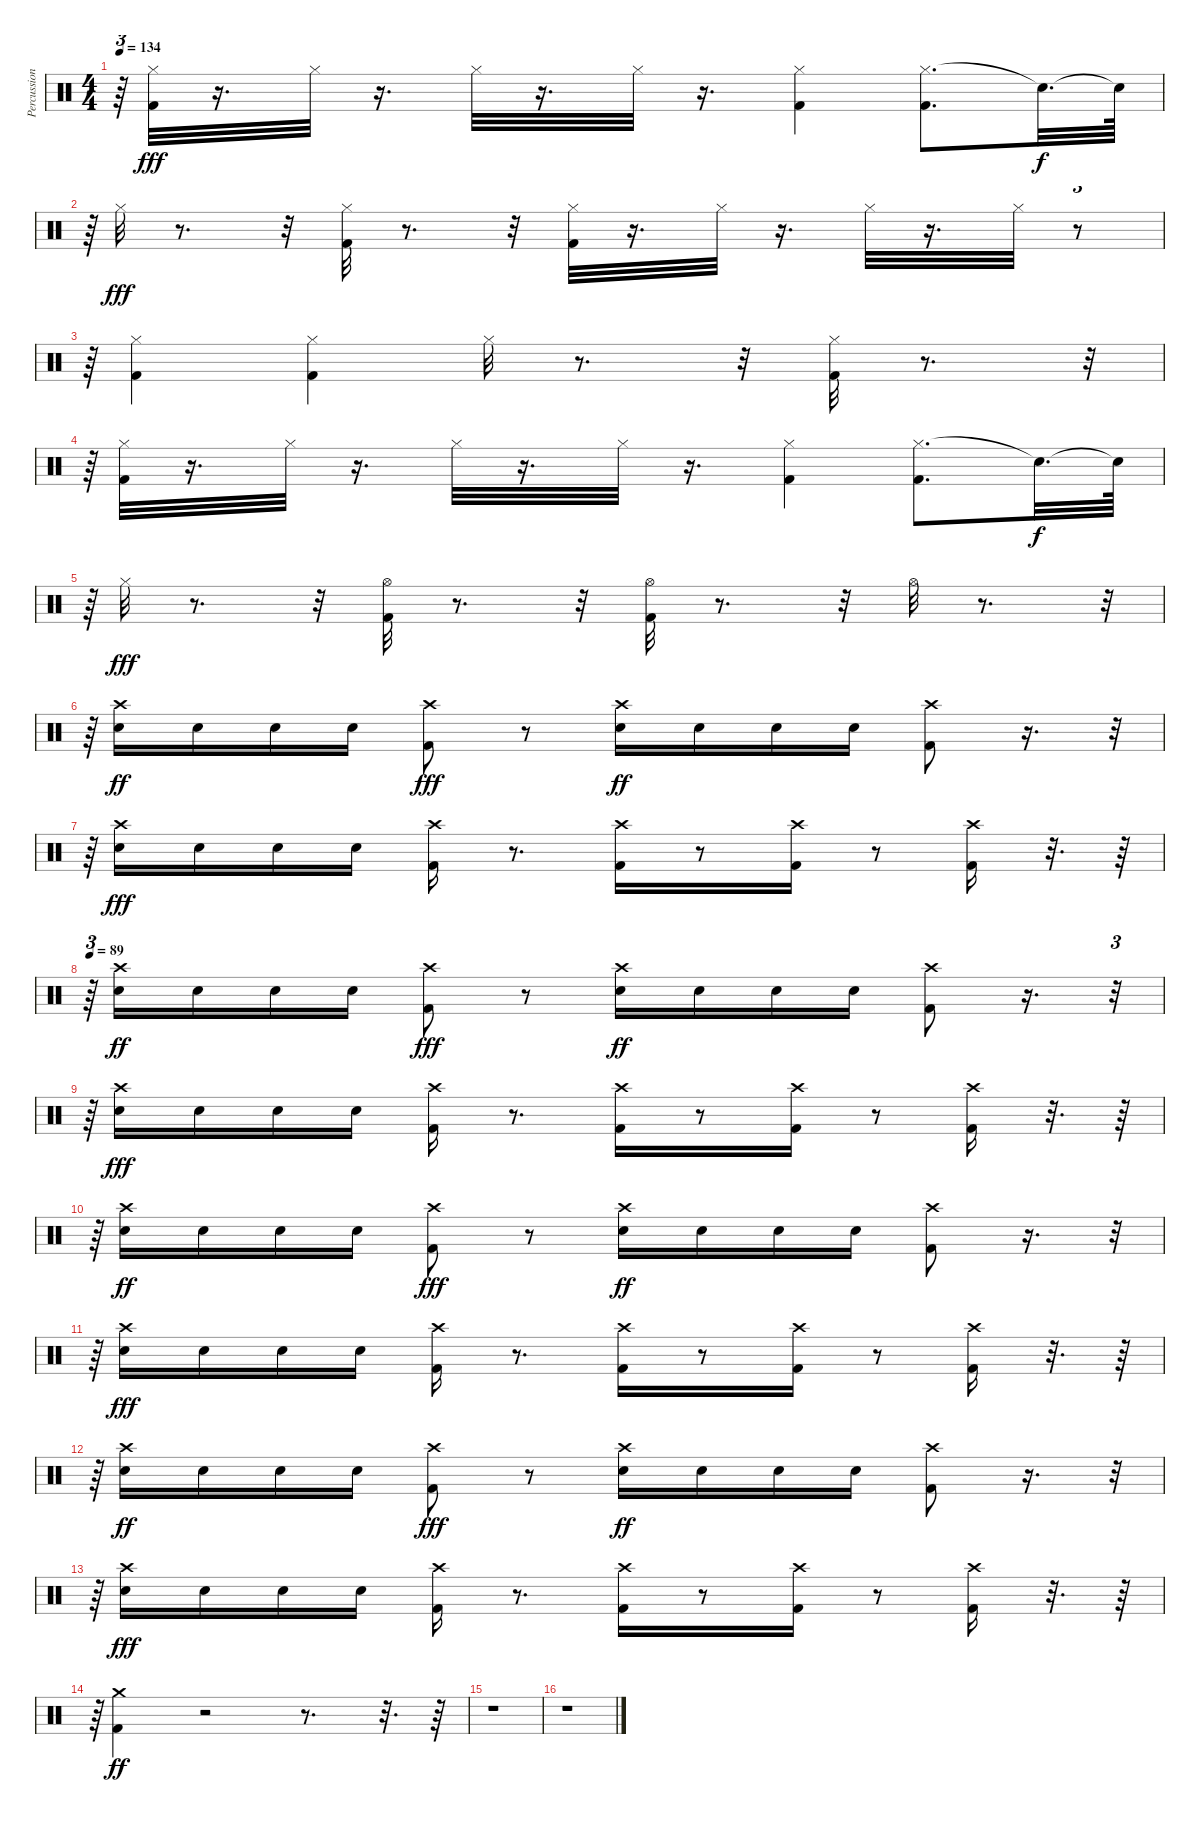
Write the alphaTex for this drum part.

\track ("Percussioni" "Percussion") {instrument percussion}
\staff {score}
\articulation defaults
\ts (4 4)
\tempo 134
\clef neutral
\ks c
r.64{tu (3 2) dy fff} ("Hi-Hat (closed)" "Kick (hit) 2").32 r.16{d} "Hi-Hat (closed)".32 r.16{d} "Hi-Hat (closed)".32 r.16{d} "Hi-Hat (closed)".32 r.16{d} ("Hi-Hat (closed)" "Kick (hit) 2").4 ("Hi-Hat (closed)" "Kick (hit) 2").8{d} "Snare (hit)"{t}.32{d dy f} "Snare (hit)"{t}.64 |
r.64{tu (3 2)} "Hi-Hat (closed)".32{dy fff} r.8{d} r.32 ("Hi-Hat (closed)" "Kick (hit) 2").32 r.8{d} r.32 ("Hi-Hat (closed)" "Kick (hit) 2").32 r.16{d} "Hi-Hat (closed)".32 r.16{d} "Hi-Hat (closed)".32 r.16{d} "Hi-Hat (closed)".32 r.8{tu (3 2)} |
r.64{tu (3 2)} ("Hi-Hat (closed)" "Kick (hit) 2").4 ("Hi-Hat (closed)" "Kick (hit) 2").4 "Hi-Hat (closed)".32 r.8{d} r.32 ("Hi-Hat (closed)" "Kick (hit) 2").32 r.8{d} r.32{tu (3 2)} |
r.64{tu (3 2)} ("Hi-Hat (closed)" "Kick (hit) 2").32 r.16{d} "Hi-Hat (closed)".32 r.16{d} "Hi-Hat (closed)".32 r.16{d} "Hi-Hat (closed)".32 r.16{d} ("Hi-Hat (closed)" "Kick (hit) 2").4 ("Hi-Hat (closed)" "Kick (hit) 2").8{d} "Snare (hit)"{t}.32{d dy f} "Snare (hit)"{t}.64 |
r.64{tu (3 2)} "Hi-Hat (closed)".32{dy fff} r.8{d} r.32 ("Hi-Hat (open)" "Kick (hit) 2").32 r.8{d} r.32 ("Hi-Hat (open)" "Kick (hit) 2").32 r.8{d} r.32 "Hi-Hat (open)".32 r.8{d} r.32{tu (3 2)} |
r.64{tu (3 2)} ("Crash high (hit)" "Snare (hit) 2").16{dy ff} "Snare (hit) 2".16 "Snare (hit) 2".16 "Snare (hit) 2".16 ("Crash high (hit)" "Kick (hit) 2").8{dy fff} r.8 ("Crash high (hit)" "Snare (hit) 2").16{dy ff} "Snare (hit) 2".16 "Snare (hit) 2".16 "Snare (hit) 2".16 ("Crash high (hit)" "Kick (hit) 2").8 r.16{d} r.32{tu (3 2)} |
r.64{tu (3 2)} ("Crash high (hit)" "Snare (hit) 2").16{dy fff} "Snare (hit) 2".16 "Snare (hit) 2".16 "Snare (hit) 2".16 ("Crash high (hit)" "Kick (hit) 2").16 r.8{d} ("Crash high (hit)" "Kick (hit) 2").16 r.8 ("Crash high (hit)" "Kick (hit) 2").16 r.8 ("Crash high (hit)" "Kick (hit) 2").16 r.32{d} r.64 |
\tempo 89
r.64{tu (3 2)} ("Crash high (hit)" "Snare (hit) 2").16{dy ff} "Snare (hit) 2".16 "Snare (hit) 2".16 "Snare (hit) 2".16 ("Crash high (hit)" "Kick (hit) 2").8{dy fff} r.8 ("Crash high (hit)" "Snare (hit) 2").16{dy ff} "Snare (hit) 2".16 "Snare (hit) 2".16 "Snare (hit) 2".16 ("Crash high (hit)" "Kick (hit) 2").8 r.16{d} r.32{tu (3 2)} |
r.64{tu (3 2)} ("Crash high (hit)" "Snare (hit) 2").16{dy fff} "Snare (hit) 2".16 "Snare (hit) 2".16 "Snare (hit) 2".16 ("Crash high (hit)" "Kick (hit) 2").16 r.8{d} ("Crash high (hit)" "Kick (hit) 2").16 r.8 ("Crash high (hit)" "Kick (hit) 2").16 r.8 ("Crash high (hit)" "Kick (hit) 2").16 r.32{d} r.64 |
r.64{tu (3 2)} ("Crash high (hit)" "Snare (hit) 2").16{dy ff} "Snare (hit) 2".16 "Snare (hit) 2".16 "Snare (hit) 2".16 ("Crash high (hit)" "Kick (hit) 2").8{dy fff} r.8 ("Crash high (hit)" "Snare (hit) 2").16{dy ff} "Snare (hit) 2".16 "Snare (hit) 2".16 "Snare (hit) 2".16 ("Crash high (hit)" "Kick (hit) 2").8 r.16{d} r.32{tu (3 2)} |
r.64{tu (3 2)} ("Crash high (hit)" "Snare (hit) 2").16{dy fff} "Snare (hit) 2".16 "Snare (hit) 2".16 "Snare (hit) 2".16 ("Crash high (hit)" "Kick (hit) 2").16 r.8{d} ("Crash high (hit)" "Kick (hit) 2").16 r.8 ("Crash high (hit)" "Kick (hit) 2").16 r.8 ("Crash high (hit)" "Kick (hit) 2").16 r.32{d} r.64 |
r.64{tu (3 2)} ("Crash high (hit)" "Snare (hit) 2").16{dy ff} "Snare (hit) 2".16 "Snare (hit) 2".16 "Snare (hit) 2".16 ("Crash high (hit)" "Kick (hit) 2").8{dy fff} r.8 ("Crash high (hit)" "Snare (hit) 2").16{dy ff} "Snare (hit) 2".16 "Snare (hit) 2".16 "Snare (hit) 2".16 ("Crash high (hit)" "Kick (hit) 2").8 r.16{d} r.32{tu (3 2)} |
r.64{tu (3 2)} ("Crash high (hit)" "Snare (hit) 2").16{dy fff} "Snare (hit) 2".16 "Snare (hit) 2".16 "Snare (hit) 2".16 ("Crash high (hit)" "Kick (hit) 2").16 r.8{d} ("Crash high (hit)" "Kick (hit) 2").16 r.8 ("Crash high (hit)" "Kick (hit) 2").16 r.8 ("Crash high (hit)" "Kick (hit) 2").16 r.32{d} r.64 |
r.64{tu (3 2)} ("Crash medium (hit)" "Kick (hit) 2").4{dy ff} r.2 r.8{d} r.32{d} r.64 |
r.1 |
r.1
